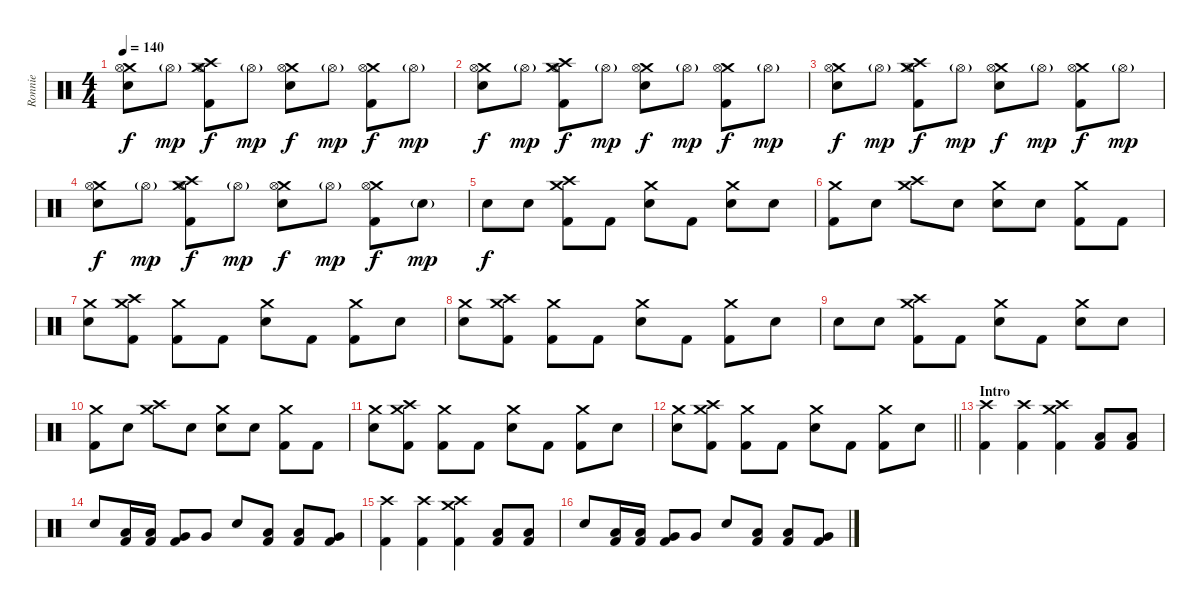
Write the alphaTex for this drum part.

\track ("Ronnie" "Ronnie") {instrument percussion}
\staff {score}
\articulation defaults
\ts (4 4)
\tempo 140
\clef neutral
\ks c
("Crash medium (hit)" "Hi-Hat (open)" "Electric Snare (hit)").8{dy f} "Hi-Hat (open)"{g}.8{dy mp} ("Crash medium (hit)" "Hi-Hat (open)" "Kick (hit) 2" "Crash high (hit)").8{dy f} "Hi-Hat (open)"{g}.8{dy mp} ("Crash medium (hit)" "Hi-Hat (open)" "Electric Snare (hit)").8{dy f} "Hi-Hat (open)"{g}.8{dy mp} ("Crash medium (hit)" "Hi-Hat (open)" "Kick (hit) 2").8{dy f} "Hi-Hat (open)"{g}.8{dy mp} |
("Crash medium (hit)" "Hi-Hat (open)" "Electric Snare (hit)").8{dy f} "Hi-Hat (open)"{g}.8{dy mp} ("Crash medium (hit)" "Hi-Hat (open)" "Kick (hit) 2" "Crash high (hit)").8{dy f} "Hi-Hat (open)"{g}.8{dy mp} ("Crash medium (hit)" "Hi-Hat (open)" "Electric Snare (hit)").8{dy f} "Hi-Hat (open)"{g}.8{dy mp} ("Crash medium (hit)" "Hi-Hat (open)" "Kick (hit) 2").8{dy f} "Hi-Hat (open)"{g}.8{dy mp} |
("Crash medium (hit)" "Hi-Hat (open)" "Electric Snare (hit)").8{dy f} "Hi-Hat (open)"{g}.8{dy mp} ("Crash medium (hit)" "Hi-Hat (open)" "Kick (hit) 2" "Crash high (hit)").8{dy f} "Hi-Hat (open)"{g}.8{dy mp} ("Crash medium (hit)" "Hi-Hat (open)" "Electric Snare (hit)").8{dy f} "Hi-Hat (open)"{g}.8{dy mp} ("Crash medium (hit)" "Hi-Hat (open)" "Kick (hit) 2").8{dy f} "Hi-Hat (open)"{g}.8{dy mp} |
("Crash medium (hit)" "Hi-Hat (open)" "Electric Snare (hit)").8{dy f} "Hi-Hat (open)"{g}.8{dy mp} ("Crash medium (hit)" "Hi-Hat (open)" "Kick (hit) 2" "Crash high (hit)").8{dy f} "Hi-Hat (open)"{g}.8{dy mp} ("Crash medium (hit)" "Hi-Hat (open)" "Electric Snare (hit)").8{dy f} "Hi-Hat (open)"{g}.8{dy mp} ("Crash medium (hit)" "Hi-Hat (open)" "Kick (hit) 2").8{dy f} "Electric Snare (hit)"{g}.8{dy mp} |
"Electric Snare (hit)".8{dy f} "Electric Snare (hit)".8 ("Crash medium (hit)" "Crash high (hit)" "Kick (hit) 2").8 "Kick (hit) 2".8 ("Crash medium (hit)" "Electric Snare (hit)").8 "Kick (hit) 2".8 ("Crash medium (hit)" "Electric Snare (hit)").8 "Electric Snare (hit)".8 |
("Crash medium (hit)" "Kick (hit) 2").8 "Electric Snare (hit)".8 ("Crash high (hit)" "Crash medium (hit)").8 "Electric Snare (hit)".8 ("Crash medium (hit)" "Electric Snare (hit)").8 "Electric Snare (hit)".8 ("Crash medium (hit)" "Kick (hit) 2").8 "Kick (hit) 2".8 |
("Crash medium (hit)" "Electric Snare (hit)").8 ("Crash high (hit)" "Crash medium (hit)" "Kick (hit) 2").8 ("Crash medium (hit)" "Kick (hit) 2").8 "Kick (hit) 2".8 ("Crash medium (hit)" "Electric Snare (hit)").8 "Kick (hit) 2".8 ("Crash medium (hit)" "Kick (hit) 2").8 "Electric Snare (hit)".8 |
("Crash medium (hit)" "Electric Snare (hit)").8 ("Crash high (hit)" "Crash medium (hit)" "Kick (hit) 2").8 ("Crash medium (hit)" "Kick (hit) 2").8 "Kick (hit) 2".8 ("Crash medium (hit)" "Electric Snare (hit)").8 "Kick (hit) 2".8 ("Crash medium (hit)" "Kick (hit) 2").8 "Electric Snare (hit)".8 |
"Electric Snare (hit)".8 "Electric Snare (hit)".8 ("Crash medium (hit)" "Crash high (hit)" "Kick (hit) 2").8 "Kick (hit) 2".8 ("Crash medium (hit)" "Electric Snare (hit)").8 "Kick (hit) 2".8 ("Crash medium (hit)" "Electric Snare (hit)").8 "Electric Snare (hit)".8 |
("Crash medium (hit)" "Kick (hit) 2").8 "Electric Snare (hit)".8 ("Crash high (hit)" "Crash medium (hit)").8 "Electric Snare (hit)".8 ("Crash medium (hit)" "Electric Snare (hit)").8 "Electric Snare (hit)".8 ("Crash medium (hit)" "Kick (hit) 2").8 "Kick (hit) 2".8 |
("Crash medium (hit)" "Electric Snare (hit)").8 ("Crash high (hit)" "Crash medium (hit)" "Kick (hit) 2").8 ("Crash medium (hit)" "Kick (hit) 2").8 "Kick (hit) 2".8 ("Crash medium (hit)" "Electric Snare (hit)").8 "Kick (hit) 2".8 ("Crash medium (hit)" "Kick (hit) 2").8 "Electric Snare (hit)".8 |
\barLineRight lightlight
("Crash medium (hit)" "Electric Snare (hit)").8 ("Crash high (hit)" "Crash medium (hit)" "Kick (hit) 2").8 ("Crash medium (hit)" "Kick (hit) 2").8 "Kick (hit) 2".8 ("Crash medium (hit)" "Electric Snare (hit)").8 "Kick (hit) 2".8 ("Crash medium (hit)" "Kick (hit) 2").8 "Electric Snare (hit)".8 |
\section ("" "Intro")
("Crash high (hit)" "Kick (hit) 2").4 ("Crash high (hit)" "Kick (hit) 2").4 ("Crash medium (hit)" "Crash high (hit)" "Kick (hit) 2").4 ("Low Tom (hit)" "Kick (hit) 2").8 ("Low Tom (hit)" "Kick (hit) 2").8 |
"Electric Snare (hit)".8 ("Low Tom (hit)" "Kick (hit) 2").16 ("Low Tom (hit)" "Kick (hit) 2").16 ("Very Low Tom (hit)" "Kick (hit) 2").8 "Very Low Tom (hit)".8 "Electric Snare (hit)".8 ("Low Tom (hit)" "Kick (hit) 2").8 ("Low Tom (hit)" "Kick (hit) 2").8 ("Very Low Tom (hit)" "Kick (hit) 2").8 |
("Crash high (hit)" "Kick (hit) 2").4 ("Crash high (hit)" "Kick (hit) 2").4 ("Crash medium (hit)" "Crash high (hit)" "Kick (hit) 2").4 ("Low Tom (hit)" "Kick (hit) 2").8 ("Low Tom (hit)" "Kick (hit) 2").8 |
"Electric Snare (hit)".8 ("Low Tom (hit)" "Kick (hit) 2").16 ("Low Tom (hit)" "Kick (hit) 2").16 ("Very Low Tom (hit)" "Kick (hit) 2").8 "Very Low Tom (hit)".8 "Electric Snare (hit)".8 ("Low Tom (hit)" "Kick (hit) 2").8 ("Low Tom (hit)" "Kick (hit) 2").8 ("Very Low Tom (hit)" "Kick (hit) 2").8
